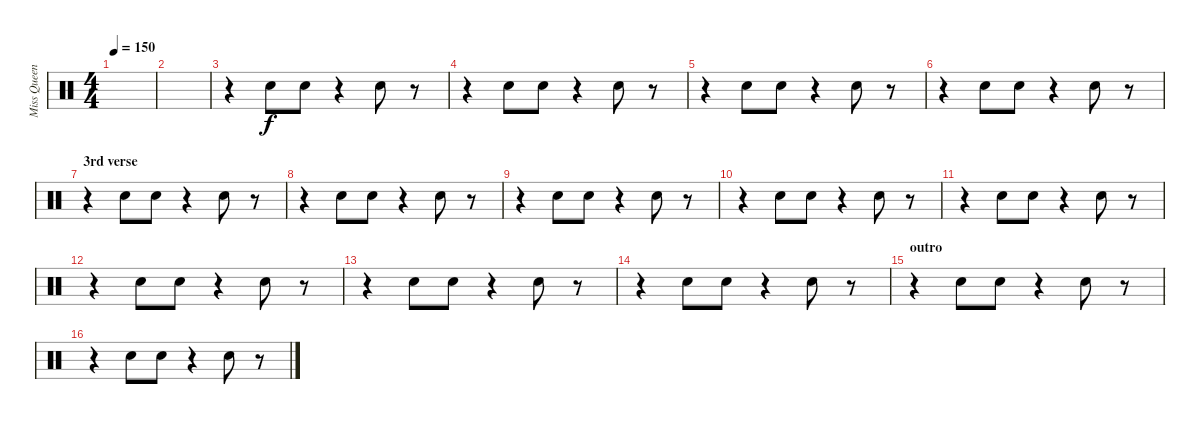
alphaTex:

\track ("Miss Queen B(rodie)" "Miss Queen") {instrument percussion}
\staff {score}
\articulation defaults
\ts (4 4)
\tempo 150
\clef neutral
\ks c
|
|
\section ("" "")
r.4 "Hand Clap (hit)".8 "Hand Clap (hit)".8 r.4 "Hand Clap (hit)".8 r.8 |
r.4 "Hand Clap (hit)".8 "Hand Clap (hit)".8 r.4 "Hand Clap (hit)".8 r.8 |
r.4 "Hand Clap (hit)".8 "Hand Clap (hit)".8 r.4 "Hand Clap (hit)".8 r.8 |
r.4 "Hand Clap (hit)".8 "Hand Clap (hit)".8 r.4 "Hand Clap (hit)".8 r.8 |
\section ("" "3rd verse")
r.4 "Hand Clap (hit)".8 "Hand Clap (hit)".8 r.4 "Hand Clap (hit)".8 r.8 |
r.4 "Hand Clap (hit)".8 "Hand Clap (hit)".8 r.4 "Hand Clap (hit)".8 r.8 |
r.4 "Hand Clap (hit)".8 "Hand Clap (hit)".8 r.4 "Hand Clap (hit)".8 r.8 |
r.4 "Hand Clap (hit)".8 "Hand Clap (hit)".8 r.4 "Hand Clap (hit)".8 r.8 |
\section ("" "")
r.4 "Hand Clap (hit)".8 "Hand Clap (hit)".8 r.4 "Hand Clap (hit)".8 r.8 |
r.4 "Hand Clap (hit)".8 "Hand Clap (hit)".8 r.4 "Hand Clap (hit)".8 r.8 |
r.4 "Hand Clap (hit)".8 "Hand Clap (hit)".8 r.4 "Hand Clap (hit)".8 r.8 |
r.4 "Hand Clap (hit)".8 "Hand Clap (hit)".8 r.4 "Hand Clap (hit)".8 r.8 |
\section ("" "outro")
r.4 "Hand Clap (hit)".8 "Hand Clap (hit)".8 r.4 "Hand Clap (hit)".8 r.8 |
r.4 "Hand Clap (hit)".8 "Hand Clap (hit)".8 r.4 "Hand Clap (hit)".8 r.8
